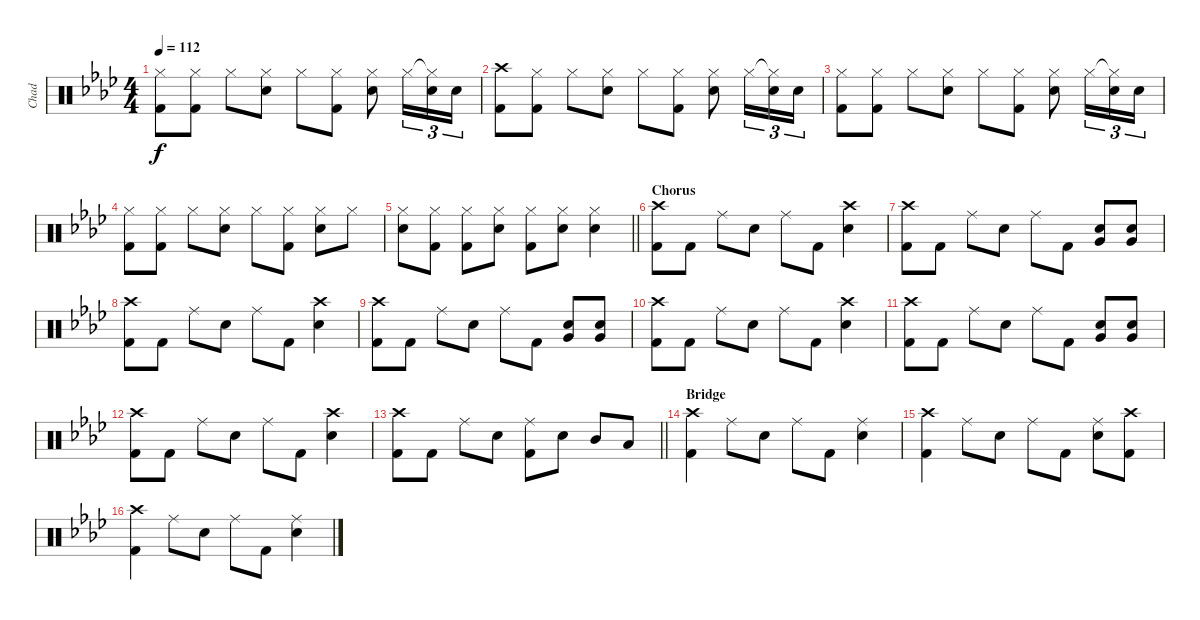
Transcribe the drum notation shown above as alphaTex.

\track ("Chad" "Chad") {instrument percussion}
\staff {score}
\articulation defaults
\ts (4 4)
\tempo 112
\clef neutral
\ks ab
("Hi-Hat (closed)" "Kick (hit) 2").8{dy f} ("Hi-Hat (closed)" "Kick (hit) 2").8 "Hi-Hat (closed)".8 ("Hi-Hat (closed)" "Snare (hit) 2").8 "Hi-Hat (closed)".8 ("Hi-Hat (closed)" "Kick (hit) 2").8 ("Hi-Hat (closed)" "Snare (hit) 2").8 "Hi-Hat (closed)".16{tu (3 2)} ("Hi-Hat (closed)"{t} "Snare (hit) 2").16{tu (3 2)} "Snare (hit) 2".16{tu (3 2)} |
("Crash high (hit)" "Kick (hit) 2").8 ("Hi-Hat (closed)" "Kick (hit) 2").8 "Hi-Hat (closed)".8 ("Hi-Hat (closed)" "Snare (hit) 2").8 "Hi-Hat (closed)".8 ("Hi-Hat (closed)" "Kick (hit) 2").8 ("Hi-Hat (closed)" "Snare (hit) 2").8 "Hi-Hat (closed)".16{tu (3 2)} ("Hi-Hat (closed)"{t} "Snare (hit) 2").16{tu (3 2)} "Snare (hit) 2".16{tu (3 2)} |
("Hi-Hat (closed)" "Kick (hit) 2").8 ("Hi-Hat (closed)" "Kick (hit) 2").8 "Hi-Hat (closed)".8 ("Hi-Hat (closed)" "Snare (hit) 2").8 "Hi-Hat (closed)".8 ("Hi-Hat (closed)" "Kick (hit) 2").8 ("Hi-Hat (closed)" "Snare (hit) 2").8 "Hi-Hat (closed)".16{tu (3 2)} ("Hi-Hat (closed)"{t} "Snare (hit) 2").16{tu (3 2)} "Snare (hit) 2".16{tu (3 2)} |
("Hi-Hat (closed)" "Kick (hit) 2").8 ("Hi-Hat (closed)" "Kick (hit) 2").8 "Hi-Hat (closed)".8 ("Hi-Hat (closed)" "Snare (hit) 2").8 "Hi-Hat (closed)".8 ("Hi-Hat (closed)" "Kick (hit) 2").8 ("Hi-Hat (closed)" "Snare (hit) 2").8 "Hi-Hat (closed)".8 |
\barLineRight lightlight
("Hi-Hat (closed)" "Snare (hit) 2").8 ("Hi-Hat (closed)" "Kick (hit) 2").8 ("Hi-Hat (closed)" "Kick (hit) 2").8 ("Hi-Hat (closed)" "Snare (hit) 2").8 ("Hi-Hat (closed)" "Kick (hit) 2").8 ("Hi-Hat (closed)" "Snare (hit) 2").8 ("Hi-Hat (closed)" "Snare (hit) 2").4 |
\section ("" "Chorus")
("Crash high (hit)" "Kick (hit) 2").8 "Kick (hit) 2".8 "Ride (middle)".8 "Snare (hit) 2".8 "Ride (middle)".8 "Kick (hit) 2".8 ("Crash high (hit)" "Snare (hit) 2").4 |
("Crash high (hit)" "Kick (hit) 2").8 "Kick (hit) 2".8 "Ride (middle)".8 "Snare (hit) 2".8 "Ride (middle)".8 "Kick (hit) 2".8 ("Snare (hit) 2" "Very Low Tom (hit)").8 ("Snare (hit) 2" "Very Low Tom (hit)").8 |
("Crash high (hit)" "Kick (hit) 2").8 "Kick (hit) 2".8 "Ride (middle)".8 "Snare (hit) 2".8 "Ride (middle)".8 "Kick (hit) 2".8 ("Crash high (hit)" "Snare (hit) 2").4 |
("Crash high (hit)" "Kick (hit) 2").8 "Kick (hit) 2".8 "Ride (middle)".8 "Snare (hit) 2".8 "Ride (middle)".8 "Kick (hit) 2".8 ("Snare (hit) 2" "Very Low Tom (hit)").8 ("Snare (hit) 2" "Very Low Tom (hit)").8 |
("Crash high (hit)" "Kick (hit) 2").8 "Kick (hit) 2".8 "Ride (middle)".8 "Snare (hit) 2".8 "Ride (middle)".8 "Kick (hit) 2".8 ("Crash high (hit)" "Snare (hit) 2").4 |
("Crash high (hit)" "Kick (hit) 2").8 "Kick (hit) 2".8 "Ride (middle)".8 "Snare (hit) 2".8 "Ride (middle)".8 "Kick (hit) 2".8 ("Snare (hit) 2" "Very Low Tom (hit)").8 ("Snare (hit) 2" "Very Low Tom (hit)").8 |
("Crash high (hit)" "Kick (hit) 2").8 "Kick (hit) 2".8 "Ride (middle)".8 "Snare (hit) 2".8 "Ride (middle)".8 "Kick (hit) 2".8 ("Crash high (hit)" "Snare (hit) 2").4 |
\barLineRight lightlight
("Crash high (hit)" "Kick (hit) 2").8 "Kick (hit) 2".8 "Ride (middle)".8 "Snare (hit) 2".8 ("Ride (middle)" "Kick (hit) 2").8 "Snare (hit) 2".8 "Mid Tom (hit)".8 "Low Tom (hit)".8 |
\section ("" "Bridge")
("Crash high (hit)" "Kick (hit) 2").4 "Ride (middle)".8 "Snare (hit) 2".8 "Ride (middle)".8 "Kick (hit) 2".8 ("Ride (middle)" "Snare (hit) 2").4 |
("Crash high (hit)" "Kick (hit) 2").4 "Ride (middle)".8 "Snare (hit) 2".8 "Ride (middle)".8 "Kick (hit) 2".8 ("Ride (middle)" "Snare (hit) 2").8 ("Crash high (hit)" "Kick (hit) 2").8 |
("Crash high (hit)" "Kick (hit) 2").4 "Ride (middle)".8 "Snare (hit) 2".8 "Ride (middle)".8 "Kick (hit) 2".8 ("Ride (middle)" "Snare (hit) 2").4
